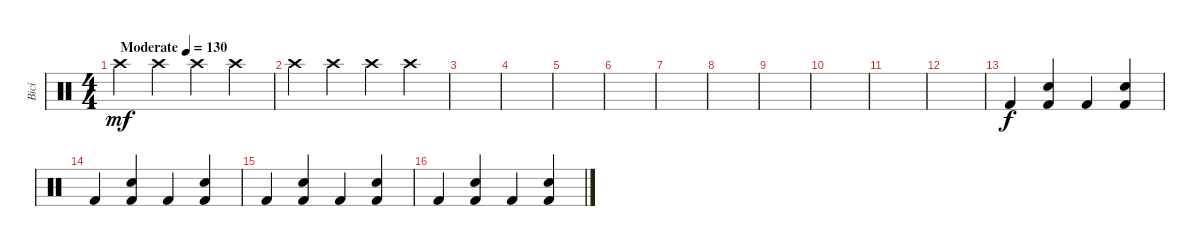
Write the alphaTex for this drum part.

\track ("Bicí" "Bicí") {instrument percussion}
\staff {score}
\articulation defaults
\ts (4 4)
\tempo (130 "Moderate")
\clef neutral
\ks c "Crash high (hit)".4{dy mf volume 0} "Crash high (hit)".4 "Crash high (hit)".4 "Crash high (hit)".4
|
"Crash high (hit)".4 "Crash high (hit)".4 "Crash high (hit)".4 "Crash high (hit)".4 |
|
|
|
|
|
|
|
|
|
|
"Kick (hit) 2".4{dy f volume 11} ("Hand Clap (hit)" "Kick (hit) 2").4 "Kick (hit) 2".4 ("Hand Clap (hit)" "Kick (hit) 2").4 |
"Kick (hit) 2".4 ("Hand Clap (hit)" "Kick (hit) 2").4 "Kick (hit) 2".4 ("Hand Clap (hit)" "Kick (hit) 2").4 |
"Kick (hit) 2".4 ("Hand Clap (hit)" "Kick (hit) 2").4 "Kick (hit) 2".4 ("Hand Clap (hit)" "Kick (hit) 2").4 |
"Kick (hit) 2".4 ("Hand Clap (hit)" "Kick (hit) 2").4 "Kick (hit) 2".4 ("Hand Clap (hit)" "Kick (hit) 2").4
